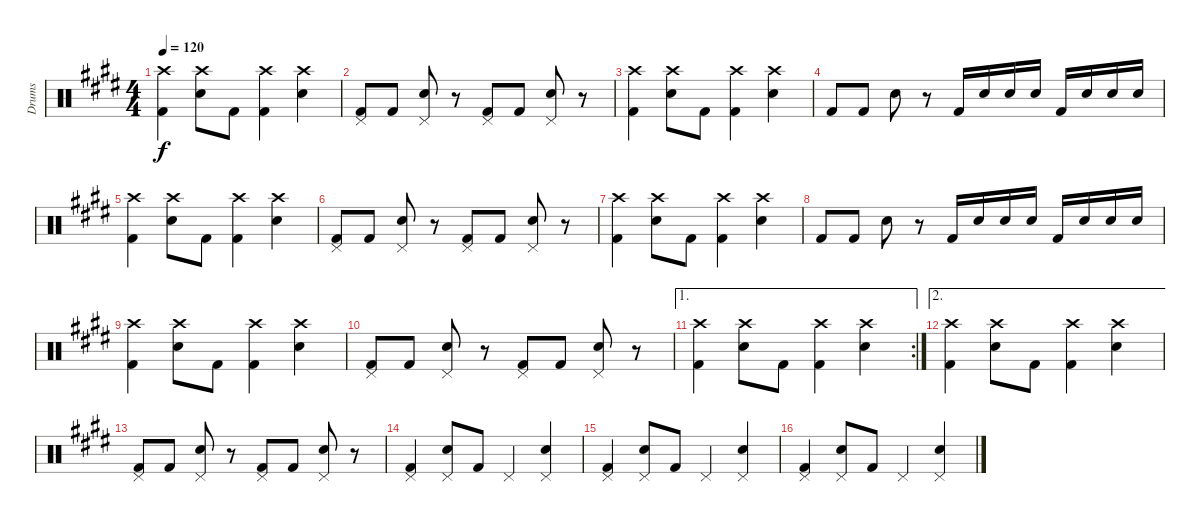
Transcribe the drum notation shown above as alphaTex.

\track ("Drums" "Drums") {instrument percussion}
\staff {score}
\articulation defaults
\ts (4 4)
\tempo 120
\clef neutral
\ks e
("Kick (hit) 2" "Crash high (hit)").4{dy f} ("Snare (hit) 2" "Crash high (hit)").8 "Kick (hit) 2".8 ("Kick (hit) 2" "Crash high (hit)").4 ("Snare (hit) 2" "Crash high (hit)").4 |
("Kick (hit) 2" "Pedal Hi-Hat (hit)").8 "Kick (hit) 2".8 ("Snare (hit) 2" "Pedal Hi-Hat (hit)").8 r.8 ("Kick (hit) 2" "Pedal Hi-Hat (hit)").8 "Kick (hit) 2".8 ("Snare (hit) 2" "Pedal Hi-Hat (hit)").8 r.8 |
("Kick (hit) 2" "Crash high (hit)").4 ("Snare (hit) 2" "Crash high (hit)").8 "Kick (hit) 2".8 ("Kick (hit) 2" "Crash high (hit)").4 ("Snare (hit) 2" "Crash high (hit)").4 |
"Kick (hit) 2".8 "Kick (hit) 2".8 "Snare (hit) 2".8 r.8 "Kick (hit) 2".16 "Snare (hit) 2".16 "Snare (hit) 2".16 "Snare (hit) 2".16 "Kick (hit) 2".16 "Snare (hit) 2".16 "Snare (hit) 2".16 "Snare (hit) 2".16 |
("Kick (hit) 2" "Crash high (hit)").4 ("Snare (hit) 2" "Crash high (hit)").8 "Kick (hit) 2".8 ("Kick (hit) 2" "Crash high (hit)").4 ("Snare (hit) 2" "Crash high (hit)").4 |
("Kick (hit) 2" "Pedal Hi-Hat (hit)").8 "Kick (hit) 2".8 ("Snare (hit) 2" "Pedal Hi-Hat (hit)").8 r.8 ("Kick (hit) 2" "Pedal Hi-Hat (hit)").8 "Kick (hit) 2".8 ("Snare (hit) 2" "Pedal Hi-Hat (hit)").8 r.8 |
("Kick (hit) 2" "Crash high (hit)").4 ("Snare (hit) 2" "Crash high (hit)").8 "Kick (hit) 2".8 ("Kick (hit) 2" "Crash high (hit)").4 ("Snare (hit) 2" "Crash high (hit)").4 |
"Kick (hit) 2".8 "Kick (hit) 2".8 "Snare (hit) 2".8 r.8 "Kick (hit) 2".16 "Snare (hit) 2".16 "Snare (hit) 2".16 "Snare (hit) 2".16 "Kick (hit) 2".16 "Snare (hit) 2".16 "Snare (hit) 2".16 "Snare (hit) 2".16 |
("Kick (hit) 2" "Crash high (hit)").4 ("Snare (hit) 2" "Crash high (hit)").8 "Kick (hit) 2".8 ("Kick (hit) 2" "Crash high (hit)").4 ("Snare (hit) 2" "Crash high (hit)").4 |
("Kick (hit) 2" "Pedal Hi-Hat (hit)").8 "Kick (hit) 2".8 ("Snare (hit) 2" "Pedal Hi-Hat (hit)").8 r.8 ("Kick (hit) 2" "Pedal Hi-Hat (hit)").8 "Kick (hit) 2".8 ("Snare (hit) 2" "Pedal Hi-Hat (hit)").8 r.8 |
\ae 1
\rc 2
("Kick (hit) 2" "Crash high (hit)").4 ("Snare (hit) 2" "Crash high (hit)").8 "Kick (hit) 2".8 ("Kick (hit) 2" "Crash high (hit)").4 ("Snare (hit) 2" "Crash high (hit)").4 |
\ae 2
("Kick (hit) 2" "Crash high (hit)").4 ("Snare (hit) 2" "Crash high (hit)").8 "Kick (hit) 2".8 ("Kick (hit) 2" "Crash high (hit)").4 ("Snare (hit) 2" "Crash high (hit)").4 |
("Kick (hit) 2" "Pedal Hi-Hat (hit)").8 "Kick (hit) 2".8 ("Snare (hit) 2" "Pedal Hi-Hat (hit)").8 r.8 ("Kick (hit) 2" "Pedal Hi-Hat (hit)").8 "Kick (hit) 2".8 ("Snare (hit) 2" "Pedal Hi-Hat (hit)").8 r.8 |
("Kick (hit) 2" "Pedal Hi-Hat (hit)").4 ("Snare (hit) 2" "Pedal Hi-Hat (hit)").8 "Kick (hit) 2".8 "Pedal Hi-Hat (hit)".4 ("Snare (hit) 2" "Pedal Hi-Hat (hit)").4 |
("Kick (hit) 2" "Pedal Hi-Hat (hit)").4 ("Snare (hit) 2" "Pedal Hi-Hat (hit)").8 "Kick (hit) 2".8 "Pedal Hi-Hat (hit)".4 ("Snare (hit) 2" "Pedal Hi-Hat (hit)").4 |
("Kick (hit) 2" "Pedal Hi-Hat (hit)").4 ("Snare (hit) 2" "Pedal Hi-Hat (hit)").8 "Kick (hit) 2".8 "Pedal Hi-Hat (hit)".4 ("Snare (hit) 2" "Pedal Hi-Hat (hit)").4
